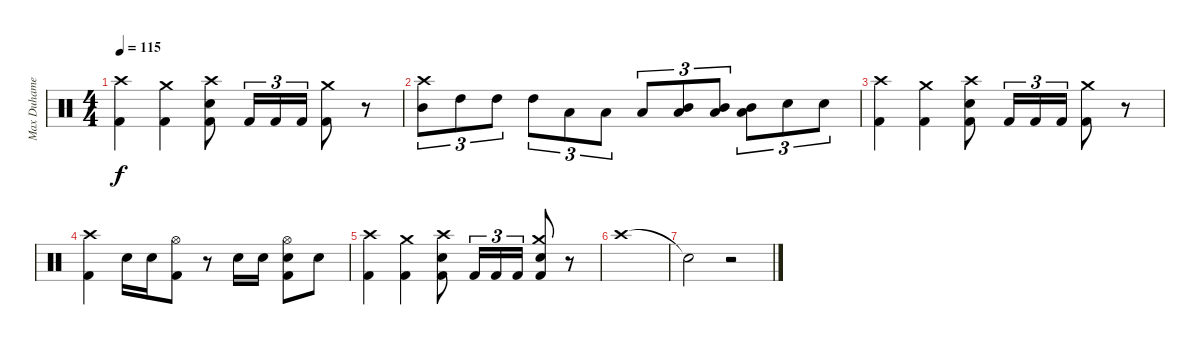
\track ("Max Duhamel (Drums)" "Max Duhame") {instrument percussion}
\staff {score}
\articulation defaults
\ts (4 4)
\tempo 115
\clef neutral
\ks c
("Crash high (hit)" "Kick (hit) 2").4{dy f} ("Crash medium (hit)" "Kick (hit) 2").4 ("Crash high (hit)" "Electric Snare (hit)" "Kick (hit) 2").8 "Kick (hit) 2".16{tu (3 2)} "Kick (hit) 2".16{tu (3 2)} "Kick (hit) 2".16{tu (3 2)} ("Crash medium (hit)" "Kick (hit) 2").8 r.8 |
("Crash high (hit)" "Mid Tom (hit)").8{tu (3 2)} "High Tom (hit)".8{tu (3 2)} "High Tom (hit)".8{tu (3 2)} "High Tom (hit)".8{tu (3 2)} "Low Tom (hit)".8{tu (3 2)} "Low Tom (hit)".8{tu (3 2)} "Low Tom (hit)".8{tu (3 2)} ("Low Floor Tom (hit)" "Mid Tom (hit)").8{tu (3 2)} ("Low Floor Tom (hit)" "Mid Tom (hit)").8{tu (3 2)} ("Low Floor Tom (hit)" "Mid Tom (hit)").8{tu (3 2)} "Electric Snare (hit)".8{tu (3 2)} "Electric Snare (hit)".8{tu (3 2)} |
("Crash high (hit)" "Kick (hit) 2").4 ("Crash medium (hit)" "Kick (hit) 2").4 ("Crash high (hit)" "Electric Snare (hit)" "Kick (hit) 2").8 "Kick (hit) 2".16{tu (3 2)} "Kick (hit) 2".16{tu (3 2)} "Kick (hit) 2".16{tu (3 2)} ("Crash medium (hit)" "Kick (hit) 2").8 r.8 |
("Crash high (hit)" "Kick (hit) 2").4 "Electric Snare (hit)".16 "Electric Snare (hit)".16 ("Hi-Hat (open)" "Kick (hit) 2").8 r.8 "Electric Snare (hit)".16 "Electric Snare (hit)".16 ("Hi-Hat (open)" "Electric Snare (hit)" "Kick (hit) 2").8 "Electric Snare (hit)".8 |
("Crash high (hit)" "Kick (hit) 2").4 ("Crash medium (hit)" "Kick (hit) 2").4 ("Crash high (hit)" "Electric Snare (hit)" "Kick (hit) 2").8 "Kick (hit) 2".16{tu (3 2)} "Kick (hit) 2".16{tu (3 2)} "Kick (hit) 2".16{tu (3 2)} ("Crash medium (hit)" "Electric Snare (hit)" "Kick (hit) 2").8 r.8 |
"Crash high (hit)".1 |
"Snare (hit)"{t}.2 r.2
